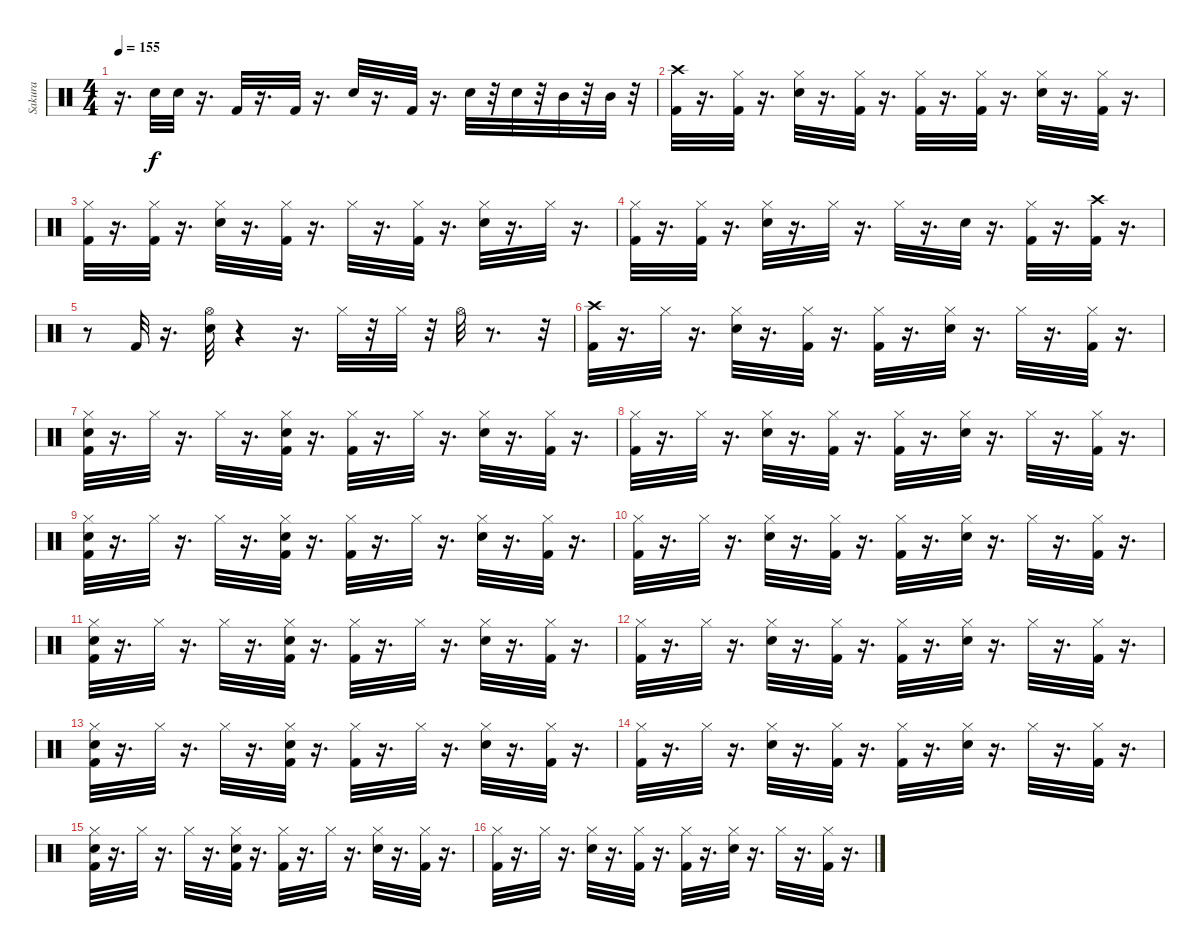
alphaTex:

\track ("Sakura" "Sakura") {instrument percussion}
\staff {score}
\articulation defaults
\ts (4 4)
\tempo 155
\clef neutral
\ks c
r.16{d dy fff} "Snare (hit) 2".32{dy f} "Snare (hit) 2".32 r.16{d} "Kick (hit) 2".32 r.16{d} "Kick (hit) 2".32 r.16{d} "Snare (hit) 2".32 r.16{d} "Kick (hit) 2".32 r.16{d} "Snare (hit) 2".32 r.32 "Snare (hit) 2".32 r.32 "Mid Tom (hit)".32 r.32 "Mid Tom (hit)".32 r.32 |
("Crash high (hit)" "Kick (hit) 2").32 r.16{d} ("Hi-Hat (closed)" "Kick (hit) 2").32 r.16{d} ("Hi-Hat (closed)" "Snare (hit) 2").32 r.16{d} ("Hi-Hat (closed)" "Kick (hit) 2").32 r.16{d} ("Kick (hit) 2" "Hi-Hat (closed)").32 r.16{d} ("Kick (hit) 2" "Hi-Hat (closed)").32 r.16{d} ("Hi-Hat (closed)" "Snare (hit) 2").32 r.16{d} ("Kick (hit) 2" "Hi-Hat (closed)").32 r.16{d} |
("Kick (hit) 2" "Hi-Hat (closed)").32 r.16{d} ("Kick (hit) 2" "Hi-Hat (closed)").32 r.16{d} ("Hi-Hat (closed)" "Snare (hit) 2").32 r.16{d} ("Kick (hit) 2" "Hi-Hat (closed)").32 r.16{d} "Hi-Hat (closed)".32 r.16{d} ("Hi-Hat (closed)" "Kick (hit) 2").32 r.16{d} ("Hi-Hat (closed)" "Snare (hit) 2").32 r.16{d} "Hi-Hat (closed)".32 r.16{d} |
("Hi-Hat (closed)" "Kick (hit) 2").32 r.16{d} ("Hi-Hat (closed)" "Kick (hit) 2").32 r.16{d} ("Hi-Hat (closed)" "Snare (hit) 2").32 r.16{d} "Hi-Hat (closed)".32 r.16{d} "Hi-Hat (closed)".32 r.16{d} "Snare (hit) 2".32 r.16{d} ("Hi-Hat (closed)" "Kick (hit) 2").32 r.16{d} ("Crash high (hit)" "Kick (hit) 2").32 r.16{d} |
r.8 "Kick (hit) 2".32 r.16{d} ("Snare (hit) 2" "Hi-Hat (open)").32 r.4 r.16{d} "Hi-Hat (closed)".32 r.32 "Hi-Hat (closed)".32 r.32 "Hi-Hat (open)".32 r.8{d} r.32 |
("Crash high (hit)" "Kick (hit) 2").32 r.16{d} "Hi-Hat (closed)".32 r.16{d} ("Hi-Hat (closed)" "Snare (hit) 2").32 r.16{d} ("Hi-Hat (closed)" "Kick (hit) 2").32 r.16{d} ("Hi-Hat (closed)" "Kick (hit) 2").32 r.16{d} ("Hi-Hat (closed)" "Snare (hit) 2").32 r.16{d} "Hi-Hat (closed)".32 r.16{d} ("Hi-Hat (closed)" "Kick (hit) 2").32 r.16{d} |
("Hi-Hat (closed)" "Snare (hit) 2" "Kick (hit) 2").32 r.16{d} "Hi-Hat (closed)".32 r.16{d} "Hi-Hat (closed)".32 r.16{d} ("Hi-Hat (closed)" "Kick (hit) 2" "Snare (hit) 2").32 r.16{d} ("Hi-Hat (closed)" "Kick (hit) 2").32 r.16{d} "Hi-Hat (closed)".32 r.16{d} ("Hi-Hat (closed)" "Snare (hit) 2").32 r.16{d} ("Hi-Hat (closed)" "Kick (hit) 2").32 r.16{d} |
("Kick (hit) 2" "Hi-Hat (closed)").32 r.16{d} "Hi-Hat (closed)".32 r.16{d} ("Hi-Hat (closed)" "Snare (hit) 2").32 r.16{d} ("Hi-Hat (closed)" "Kick (hit) 2").32 r.16{d} ("Hi-Hat (closed)" "Kick (hit) 2").32 r.16{d} ("Hi-Hat (closed)" "Snare (hit) 2").32 r.16{d} "Hi-Hat (closed)".32 r.16{d} ("Hi-Hat (closed)" "Kick (hit) 2").32 r.16{d} |
("Hi-Hat (closed)" "Snare (hit) 2" "Kick (hit) 2").32 r.16{d} "Hi-Hat (closed)".32 r.16{d} "Hi-Hat (closed)".32 r.16{d} ("Hi-Hat (closed)" "Kick (hit) 2" "Snare (hit) 2").32 r.16{d} ("Hi-Hat (closed)" "Kick (hit) 2").32 r.16{d} "Hi-Hat (closed)".32 r.16{d} ("Hi-Hat (closed)" "Snare (hit) 2").32 r.16{d} ("Hi-Hat (closed)" "Kick (hit) 2").32 r.16{d} |
("Kick (hit) 2" "Hi-Hat (closed)").32 r.16{d} "Hi-Hat (closed)".32 r.16{d} ("Hi-Hat (closed)" "Snare (hit) 2").32 r.16{d} ("Hi-Hat (closed)" "Kick (hit) 2").32 r.16{d} ("Hi-Hat (closed)" "Kick (hit) 2").32 r.16{d} ("Hi-Hat (closed)" "Snare (hit) 2").32 r.16{d} "Hi-Hat (closed)".32 r.16{d} ("Hi-Hat (closed)" "Kick (hit) 2").32 r.16{d} |
("Hi-Hat (closed)" "Snare (hit) 2" "Kick (hit) 2").32 r.16{d} "Hi-Hat (closed)".32 r.16{d} "Hi-Hat (closed)".32 r.16{d} ("Hi-Hat (closed)" "Kick (hit) 2" "Snare (hit) 2").32 r.16{d} ("Hi-Hat (closed)" "Kick (hit) 2").32 r.16{d} "Hi-Hat (closed)".32 r.16{d} ("Hi-Hat (closed)" "Snare (hit) 2").32 r.16{d} ("Hi-Hat (closed)" "Kick (hit) 2").32 r.16{d} |
("Kick (hit) 2" "Hi-Hat (closed)").32 r.16{d} "Hi-Hat (closed)".32 r.16{d} ("Hi-Hat (closed)" "Snare (hit) 2").32 r.16{d} ("Hi-Hat (closed)" "Kick (hit) 2").32 r.16{d} ("Hi-Hat (closed)" "Kick (hit) 2").32 r.16{d} ("Hi-Hat (closed)" "Snare (hit) 2").32 r.16{d} "Hi-Hat (closed)".32 r.16{d} ("Hi-Hat (closed)" "Kick (hit) 2").32 r.16{d} |
("Hi-Hat (closed)" "Snare (hit) 2" "Kick (hit) 2").32 r.16{d} "Hi-Hat (closed)".32 r.16{d} "Hi-Hat (closed)".32 r.16{d} ("Hi-Hat (closed)" "Kick (hit) 2" "Snare (hit) 2").32 r.16{d} ("Hi-Hat (closed)" "Kick (hit) 2").32 r.16{d} "Hi-Hat (closed)".32 r.16{d} ("Hi-Hat (closed)" "Snare (hit) 2").32 r.16{d} ("Hi-Hat (closed)" "Kick (hit) 2").32 r.16{d} |
("Kick (hit) 2" "Hi-Hat (closed)").32 r.16{d} "Hi-Hat (closed)".32 r.16{d} ("Hi-Hat (closed)" "Snare (hit) 2").32 r.16{d} ("Hi-Hat (closed)" "Kick (hit) 2").32 r.16{d} ("Hi-Hat (closed)" "Kick (hit) 2").32 r.16{d} ("Hi-Hat (closed)" "Snare (hit) 2").32 r.16{d} "Hi-Hat (closed)".32 r.16{d} ("Hi-Hat (closed)" "Kick (hit) 2").32 r.16{d} |
("Hi-Hat (closed)" "Snare (hit) 2" "Kick (hit) 2").32 r.16{d} "Hi-Hat (closed)".32 r.16{d} "Hi-Hat (closed)".32 r.16{d} ("Hi-Hat (closed)" "Kick (hit) 2" "Snare (hit) 2").32 r.16{d} ("Hi-Hat (closed)" "Kick (hit) 2").32 r.16{d} "Hi-Hat (closed)".32 r.16{d} ("Hi-Hat (closed)" "Snare (hit) 2").32 r.16{d} ("Hi-Hat (closed)" "Kick (hit) 2").32 r.16{d} |
("Kick (hit) 2" "Hi-Hat (closed)").32 r.16{d} "Hi-Hat (closed)".32 r.16{d} ("Hi-Hat (closed)" "Snare (hit) 2").32 r.16{d} ("Hi-Hat (closed)" "Kick (hit) 2").32 r.16{d} ("Hi-Hat (closed)" "Kick (hit) 2").32 r.16{d} ("Hi-Hat (closed)" "Snare (hit) 2").32 r.16{d} "Hi-Hat (closed)".32 r.16{d} ("Hi-Hat (closed)" "Kick (hit) 2").32 r.16{d}
